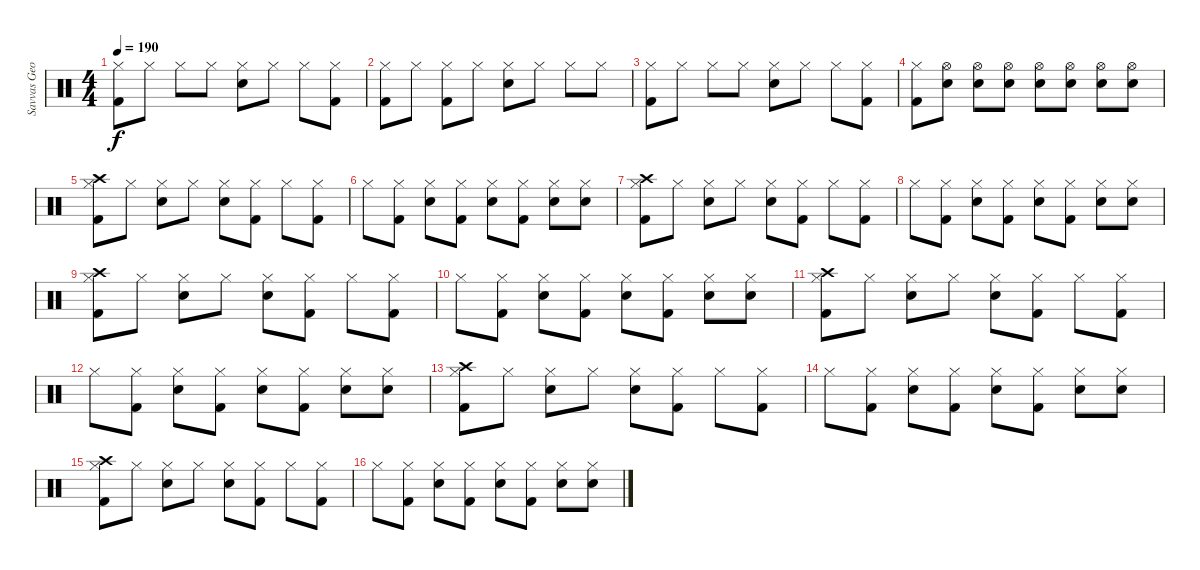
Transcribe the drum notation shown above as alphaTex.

\track ("Savvas Georgiadis" "Savvas Geo") {instrument percussion}
\staff {score}
\articulation defaults
\ts (4 4)
\tempo 190
\clef neutral
\ks c
("Hi-Hat (closed)" "Kick (hit) 2").8{dy f} "Hi-Hat (closed)".8 "Hi-Hat (closed)".8 "Hi-Hat (closed)".8 ("Hi-Hat (closed)" "Electric Snare (hit)").8 "Hi-Hat (closed)".8 "Hi-Hat (closed)".8 ("Hi-Hat (closed)" "Kick (hit) 2").8 |
("Hi-Hat (closed)" "Kick (hit) 2").8 "Hi-Hat (closed)".8 ("Hi-Hat (closed)" "Kick (hit) 2").8 "Hi-Hat (closed)".8 ("Hi-Hat (closed)" "Electric Snare (hit)").8 "Hi-Hat (closed)".8 "Hi-Hat (closed)".8 "Hi-Hat (closed)".8 |
("Hi-Hat (closed)" "Kick (hit) 2").8 "Hi-Hat (closed)".8 "Hi-Hat (closed)".8 "Hi-Hat (closed)".8 ("Hi-Hat (closed)" "Electric Snare (hit)").8 "Hi-Hat (closed)".8 "Hi-Hat (closed)".8 ("Hi-Hat (closed)" "Kick (hit) 2").8 |
("Hi-Hat (closed)" "Kick (hit) 2").8 ("Hi-Hat (open)" "Electric Snare (hit)").8 ("Hi-Hat (open)" "Electric Snare (hit)").8 ("Hi-Hat (open)" "Electric Snare (hit)").8 ("Hi-Hat (open)" "Electric Snare (hit)").8 ("Hi-Hat (open)" "Electric Snare (hit)").8 ("Hi-Hat (open)" "Electric Snare (hit)").8 ("Hi-Hat (open)" "Electric Snare (hit)").8 |
("Crash high (hit)" "Hi-Hat (closed)" "Kick (hit) 2").8 "Hi-Hat (closed)".8 ("Hi-Hat (closed)" "Electric Snare (hit)").8 "Hi-Hat (closed)".8 ("Hi-Hat (closed)" "Electric Snare (hit)").8 ("Hi-Hat (closed)" "Kick (hit) 2").8 "Hi-Hat (closed)".8 ("Hi-Hat (closed)" "Kick (hit) 2").8 |
"Hi-Hat (closed)".8 ("Hi-Hat (closed)" "Kick (hit) 2").8 ("Hi-Hat (closed)" "Electric Snare (hit)").8 ("Hi-Hat (closed)" "Kick (hit) 2").8 ("Hi-Hat (closed)" "Electric Snare (hit)").8 ("Hi-Hat (closed)" "Kick (hit) 2").8 ("Hi-Hat (closed)" "Electric Snare (hit)").8 ("Hi-Hat (closed)" "Electric Snare (hit)").8 |
("Crash high (hit)" "Hi-Hat (closed)" "Kick (hit) 2").8 "Hi-Hat (closed)".8 ("Hi-Hat (closed)" "Electric Snare (hit)").8 "Hi-Hat (closed)".8 ("Hi-Hat (closed)" "Electric Snare (hit)").8 ("Hi-Hat (closed)" "Kick (hit) 2").8 "Hi-Hat (closed)".8 ("Hi-Hat (closed)" "Kick (hit) 2").8 |
"Hi-Hat (closed)".8 ("Hi-Hat (closed)" "Kick (hit) 2").8 ("Hi-Hat (closed)" "Electric Snare (hit)").8 ("Hi-Hat (closed)" "Kick (hit) 2").8 ("Hi-Hat (closed)" "Electric Snare (hit)").8 ("Hi-Hat (closed)" "Kick (hit) 2").8 ("Hi-Hat (closed)" "Electric Snare (hit)").8 ("Hi-Hat (closed)" "Electric Snare (hit)").8 |
("Crash high (hit)" "Hi-Hat (closed)" "Kick (hit) 2").8 "Hi-Hat (closed)".8 ("Hi-Hat (closed)" "Electric Snare (hit)").8 "Hi-Hat (closed)".8 ("Hi-Hat (closed)" "Electric Snare (hit)").8 ("Hi-Hat (closed)" "Kick (hit) 2").8 "Hi-Hat (closed)".8 ("Hi-Hat (closed)" "Kick (hit) 2").8 |
"Hi-Hat (closed)".8 ("Hi-Hat (closed)" "Kick (hit) 2").8 ("Hi-Hat (closed)" "Electric Snare (hit)").8 ("Hi-Hat (closed)" "Kick (hit) 2").8 ("Hi-Hat (closed)" "Electric Snare (hit)").8 ("Hi-Hat (closed)" "Kick (hit) 2").8 ("Hi-Hat (closed)" "Electric Snare (hit)").8 ("Hi-Hat (closed)" "Electric Snare (hit)").8 |
("Crash high (hit)" "Hi-Hat (closed)" "Kick (hit) 2").8 "Hi-Hat (closed)".8 ("Hi-Hat (closed)" "Electric Snare (hit)").8 "Hi-Hat (closed)".8 ("Hi-Hat (closed)" "Electric Snare (hit)").8 ("Hi-Hat (closed)" "Kick (hit) 2").8 "Hi-Hat (closed)".8 ("Hi-Hat (closed)" "Kick (hit) 2").8 |
"Hi-Hat (closed)".8 ("Hi-Hat (closed)" "Kick (hit) 2").8 ("Hi-Hat (closed)" "Electric Snare (hit)").8 ("Hi-Hat (closed)" "Kick (hit) 2").8 ("Hi-Hat (closed)" "Electric Snare (hit)").8 ("Hi-Hat (closed)" "Kick (hit) 2").8 ("Hi-Hat (closed)" "Electric Snare (hit)").8 ("Hi-Hat (closed)" "Electric Snare (hit)").8 |
("Crash high (hit)" "Hi-Hat (closed)" "Kick (hit) 2").8 "Hi-Hat (closed)".8 ("Hi-Hat (closed)" "Electric Snare (hit)").8 "Hi-Hat (closed)".8 ("Hi-Hat (closed)" "Electric Snare (hit)").8 ("Hi-Hat (closed)" "Kick (hit) 2").8 "Hi-Hat (closed)".8 ("Hi-Hat (closed)" "Kick (hit) 2").8 |
"Hi-Hat (closed)".8 ("Hi-Hat (closed)" "Kick (hit) 2").8 ("Hi-Hat (closed)" "Electric Snare (hit)").8 ("Hi-Hat (closed)" "Kick (hit) 2").8 ("Hi-Hat (closed)" "Electric Snare (hit)").8 ("Hi-Hat (closed)" "Kick (hit) 2").8 ("Hi-Hat (closed)" "Electric Snare (hit)").8 ("Hi-Hat (closed)" "Electric Snare (hit)").8 |
("Crash high (hit)" "Hi-Hat (closed)" "Kick (hit) 2").8 "Hi-Hat (closed)".8 ("Hi-Hat (closed)" "Electric Snare (hit)").8 "Hi-Hat (closed)".8 ("Hi-Hat (closed)" "Electric Snare (hit)").8 ("Hi-Hat (closed)" "Kick (hit) 2").8 "Hi-Hat (closed)".8 ("Hi-Hat (closed)" "Kick (hit) 2").8 |
"Hi-Hat (closed)".8 ("Hi-Hat (closed)" "Kick (hit) 2").8 ("Hi-Hat (closed)" "Electric Snare (hit)").8 ("Hi-Hat (closed)" "Kick (hit) 2").8 ("Hi-Hat (closed)" "Electric Snare (hit)").8 ("Hi-Hat (closed)" "Kick (hit) 2").8 ("Hi-Hat (closed)" "Electric Snare (hit)").8 ("Hi-Hat (closed)" "Electric Snare (hit)").8
